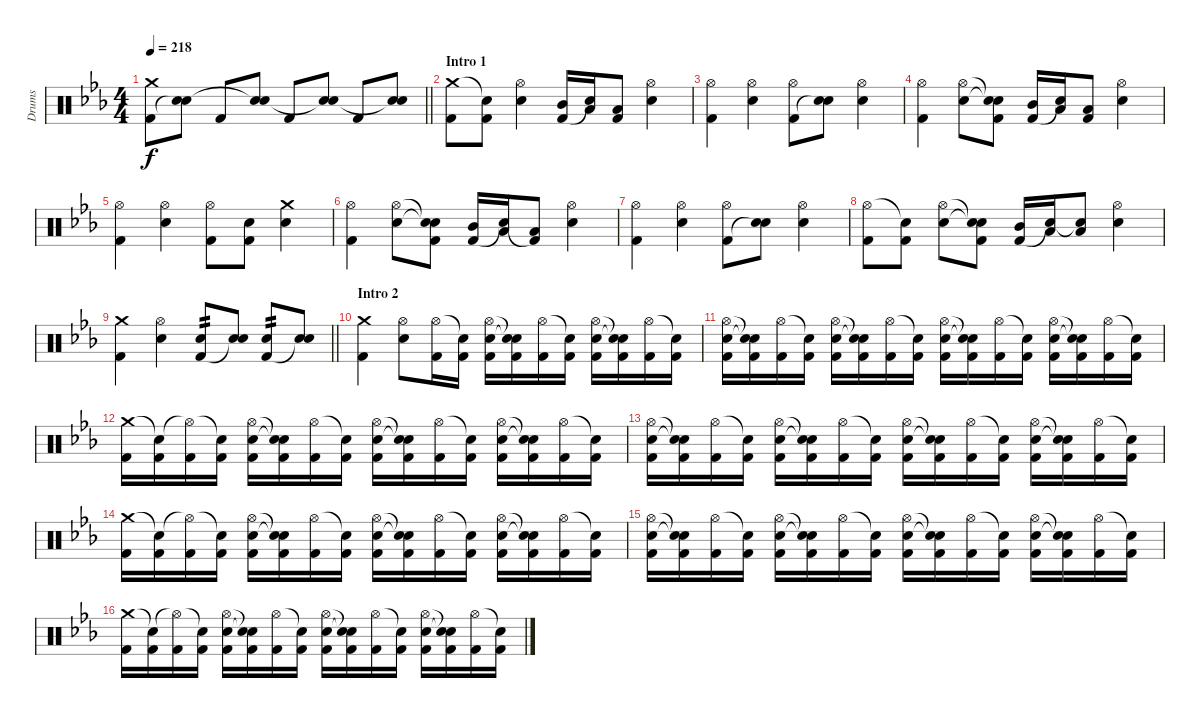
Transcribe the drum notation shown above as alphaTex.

\track ("Drums" "Drums") {instrument percussion}
\staff {score}
\articulation defaults
\ts (4 4)
\tempo 218
\clef neutral
\barLineRight lightlight
\ks eb
("Crash medium (hit)" "Kick (hit) 2").8{dy f} ("Electric Snare (hit)" "Snare (hit)"{t}).8 "Kick (hit) 2".8 ("Electric Snare (hit)" "Snare (hit)"{t}).8 "Kick (hit) 2".8 ("Electric Snare (hit)" "Snare (hit)"{t}).8 "Kick (hit) 2".8 ("Electric Snare (hit)" "Snare (hit)"{t}).8 |
\section ("" "Intro 1")
("Crash medium (hit)" "Kick (hit) 2").8 ("Snare (hit)"{t} "Kick (hit) 2").8 ("Hi-Hat (open)" "Electric Snare (hit)").4 ("Mid Tom (hit)" "Kick (hit) 2").16 ("Low Tom (hit)" "Snare (hit)"{t}).16 ("Low Floor Tom (hit)" "Kick (hit) 2").8 ("Hi-Hat (open)" "Electric Snare (hit)").4 |
("Hi-Hat (open)" "Kick (hit) 2").4 ("Hi-Hat (open)" "Electric Snare (hit)").4 ("Hi-Hat (open)" "Kick (hit) 2").8 ("Electric Snare (hit)" "Snare (hit)"{t}).8 ("Hi-Hat (open)" "Electric Snare (hit)").4 |
("Hi-Hat (open)" "Kick (hit) 2").4 ("Hi-Hat (open)" "Electric Snare (hit)").8 ("Snare (hit)"{t} "Snare (hit)"{t} "Kick (hit) 2").8 ("Mid Tom (hit)" "Kick (hit) 2").16 ("Low Tom (hit)" "Snare (hit)"{t}).16 ("Low Floor Tom (hit)" "Kick (hit) 2").8 ("Hi-Hat (open)" "Electric Snare (hit)").4 |
("Hi-Hat (open)" "Kick (hit) 2").4 ("Hi-Hat (open)" "Electric Snare (hit)").4 ("Hi-Hat (open)" "Kick (hit) 2").8 ("Electric Snare (hit)" "Kick (hit) 2").8 ("Crash medium (hit)" "Electric Snare (hit)").4 |
("Hi-Hat (open)" "Kick (hit) 2").4 ("Hi-Hat (open)" "Electric Snare (hit)").8 ("Snare (hit)"{t} "Snare (hit)"{t} "Kick (hit) 2").8 ("Mid Tom (hit)" "Kick (hit) 2").16 ("Low Tom (hit)" "Snare (hit)"{t}).16 ("Low Floor Tom (hit)" "Kick (hit) 2"{t}).8 ("Hi-Hat (open)" "Electric Snare (hit)").4 |
("Hi-Hat (open)" "Kick (hit) 2").4 ("Hi-Hat (open)" "Electric Snare (hit)").4 ("Hi-Hat (open)" "Kick (hit) 2").8 ("Electric Snare (hit)" "Snare (hit)"{t}).8 ("Hi-Hat (open)" "Electric Snare (hit)").4 |
("Hi-Hat (open)" "Kick (hit) 2").8 ("Snare (hit)"{t} "Kick (hit) 2").8 ("Hi-Hat (open)" "Electric Snare (hit)").8 ("Snare (hit)"{t} "Snare (hit)"{t} "Kick (hit) 2").8 ("Mid Tom (hit)" "Kick (hit) 2").16 ("Low Tom (hit)" "Snare (hit)"{t}).16 ("Low Floor Tom (hit)" "Snare (hit)"{t}).8 ("Hi-Hat (open)" "Electric Snare (hit)").4 |
\barLineRight lightlight
("Crash medium (hit)" "Kick (hit) 2").4 ("Hi-Hat (open)" "Electric Snare (hit)").4 ("Electric Snare (hit)" "Kick (hit) 2").8{tp 2} ("Electric Snare (hit)" "Snare (hit)"{t}).8 ("Electric Snare (hit)" "Kick (hit) 2").8{tp 2} ("Electric Snare (hit)" "Snare (hit)"{t}).8 |
\section ("" "Intro 2")
("Crash medium (hit)" "Kick (hit) 2").4 ("Hi-Hat (open)" "Electric Snare (hit)").8 ("Hi-Hat (open)" "Kick (hit) 2").16 ("Snare (hit)"{t} "Kick (hit) 2").16 ("Hi-Hat (open)" "Electric Snare (hit)" "Kick (hit) 2").16 ("Snare (hit)"{t} "Snare (hit)"{t} "Kick (hit) 2").16 ("Hi-Hat (open)" "Kick (hit) 2").16 ("Snare (hit)"{t} "Kick (hit) 2").16 ("Hi-Hat (open)" "Electric Snare (hit)" "Kick (hit) 2").16 ("Snare (hit)"{t} "Snare (hit)"{t} "Kick (hit) 2").16 ("Hi-Hat (open)" "Kick (hit) 2").16 ("Snare (hit)"{t} "Kick (hit) 2").16 |
("Hi-Hat (open)" "Electric Snare (hit)" "Kick (hit) 2").16 ("Snare (hit)"{t} "Snare (hit)"{t} "Kick (hit) 2").16 ("Hi-Hat (open)" "Kick (hit) 2").16 ("Snare (hit)"{t} "Kick (hit) 2").16 ("Hi-Hat (open)" "Electric Snare (hit)" "Kick (hit) 2").16 ("Snare (hit)"{t} "Snare (hit)"{t} "Kick (hit) 2").16 ("Hi-Hat (open)" "Kick (hit) 2").16 ("Snare (hit)"{t} "Kick (hit) 2").16 ("Hi-Hat (open)" "Electric Snare (hit)" "Kick (hit) 2").16 ("Snare (hit)"{t} "Snare (hit)"{t} "Kick (hit) 2").16 ("Hi-Hat (open)" "Kick (hit) 2").16 ("Snare (hit)"{t} "Kick (hit) 2").16 ("Hi-Hat (open)" "Electric Snare (hit)" "Kick (hit) 2").16 ("Snare (hit)"{t} "Snare (hit)"{t} "Kick (hit) 2").16 ("Hi-Hat (open)" "Kick (hit) 2").16 ("Snare (hit)"{t} "Kick (hit) 2").16 |
("Crash medium (hit)" "Kick (hit) 2").16 ("Snare (hit)"{t} "Kick (hit) 2").16 ("Hi-Hat (open)"{t} "Kick (hit) 2").16 ("Snare (hit)"{t} "Kick (hit) 2").16 ("Hi-Hat (open)" "Electric Snare (hit)" "Kick (hit) 2").16 ("Snare (hit)"{t} "Snare (hit)"{t} "Kick (hit) 2").16 ("Hi-Hat (open)" "Kick (hit) 2").16 ("Snare (hit)"{t} "Kick (hit) 2").16 ("Hi-Hat (open)" "Electric Snare (hit)" "Kick (hit) 2").16 ("Snare (hit)"{t} "Snare (hit)"{t} "Kick (hit) 2").16 ("Hi-Hat (open)" "Kick (hit) 2").16 ("Snare (hit)"{t} "Kick (hit) 2").16 ("Hi-Hat (open)" "Electric Snare (hit)" "Kick (hit) 2").16 ("Snare (hit)"{t} "Snare (hit)"{t} "Kick (hit) 2").16 ("Hi-Hat (open)" "Kick (hit) 2").16 ("Snare (hit)"{t} "Kick (hit) 2").16 |
("Hi-Hat (open)" "Electric Snare (hit)" "Kick (hit) 2").16 ("Snare (hit)"{t} "Snare (hit)"{t} "Kick (hit) 2").16 ("Hi-Hat (open)" "Kick (hit) 2").16 ("Snare (hit)"{t} "Kick (hit) 2").16 ("Hi-Hat (open)" "Electric Snare (hit)" "Kick (hit) 2").16 ("Snare (hit)"{t} "Snare (hit)"{t} "Kick (hit) 2").16 ("Hi-Hat (open)" "Kick (hit) 2").16 ("Snare (hit)"{t} "Kick (hit) 2").16 ("Hi-Hat (open)" "Electric Snare (hit)" "Kick (hit) 2").16 ("Snare (hit)"{t} "Snare (hit)"{t} "Kick (hit) 2").16 ("Hi-Hat (open)" "Kick (hit) 2").16 ("Snare (hit)"{t} "Kick (hit) 2").16 ("Hi-Hat (open)" "Electric Snare (hit)" "Kick (hit) 2").16 ("Snare (hit)"{t} "Snare (hit)"{t} "Kick (hit) 2").16 ("Hi-Hat (open)" "Kick (hit) 2").16 ("Snare (hit)"{t} "Kick (hit) 2").16 |
("Crash medium (hit)" "Kick (hit) 2").16 ("Snare (hit)"{t} "Kick (hit) 2").16 ("Hi-Hat (open)"{t} "Kick (hit) 2").16 ("Snare (hit)"{t} "Kick (hit) 2").16 ("Hi-Hat (open)" "Electric Snare (hit)" "Kick (hit) 2").16 ("Snare (hit)"{t} "Snare (hit)"{t} "Kick (hit) 2").16 ("Hi-Hat (open)" "Kick (hit) 2").16 ("Snare (hit)"{t} "Kick (hit) 2").16 ("Hi-Hat (open)" "Electric Snare (hit)" "Kick (hit) 2").16 ("Snare (hit)"{t} "Snare (hit)"{t} "Kick (hit) 2").16 ("Hi-Hat (open)" "Kick (hit) 2").16 ("Snare (hit)"{t} "Kick (hit) 2").16 ("Hi-Hat (open)" "Electric Snare (hit)" "Kick (hit) 2").16 ("Snare (hit)"{t} "Snare (hit)"{t} "Kick (hit) 2").16 ("Hi-Hat (open)" "Kick (hit) 2").16 ("Snare (hit)"{t} "Kick (hit) 2").16 |
("Hi-Hat (open)" "Electric Snare (hit)" "Kick (hit) 2").16 ("Snare (hit)"{t} "Snare (hit)"{t} "Kick (hit) 2").16 ("Hi-Hat (open)" "Kick (hit) 2").16 ("Snare (hit)"{t} "Kick (hit) 2").16 ("Hi-Hat (open)" "Electric Snare (hit)" "Kick (hit) 2").16 ("Snare (hit)"{t} "Snare (hit)"{t} "Kick (hit) 2").16 ("Hi-Hat (open)" "Kick (hit) 2").16 ("Snare (hit)"{t} "Kick (hit) 2").16 ("Hi-Hat (open)" "Electric Snare (hit)" "Kick (hit) 2").16 ("Snare (hit)"{t} "Snare (hit)"{t} "Kick (hit) 2").16 ("Hi-Hat (open)" "Kick (hit) 2").16 ("Snare (hit)"{t} "Kick (hit) 2").16 ("Hi-Hat (open)" "Electric Snare (hit)" "Kick (hit) 2").16 ("Snare (hit)"{t} "Snare (hit)"{t} "Kick (hit) 2").16 ("Hi-Hat (open)" "Kick (hit) 2").16 ("Snare (hit)"{t} "Kick (hit) 2").16 |
("Crash medium (hit)" "Kick (hit) 2").16 ("Snare (hit)"{t} "Kick (hit) 2").16 ("Hi-Hat (open)"{t} "Kick (hit) 2").16 ("Snare (hit)"{t} "Kick (hit) 2").16 ("Hi-Hat (open)" "Electric Snare (hit)" "Kick (hit) 2").16 ("Snare (hit)"{t} "Snare (hit)"{t} "Kick (hit) 2").16 ("Hi-Hat (open)" "Kick (hit) 2").16 ("Snare (hit)"{t} "Kick (hit) 2").16 ("Hi-Hat (open)" "Electric Snare (hit)" "Kick (hit) 2").16 ("Snare (hit)"{t} "Snare (hit)"{t} "Kick (hit) 2").16 ("Hi-Hat (open)" "Kick (hit) 2").16 ("Snare (hit)"{t} "Kick (hit) 2").16 ("Hi-Hat (open)" "Electric Snare (hit)" "Kick (hit) 2").16 ("Snare (hit)"{t} "Snare (hit)"{t} "Kick (hit) 2").16 ("Hi-Hat (open)" "Kick (hit) 2").16 ("Snare (hit)"{t} "Kick (hit) 2").16
